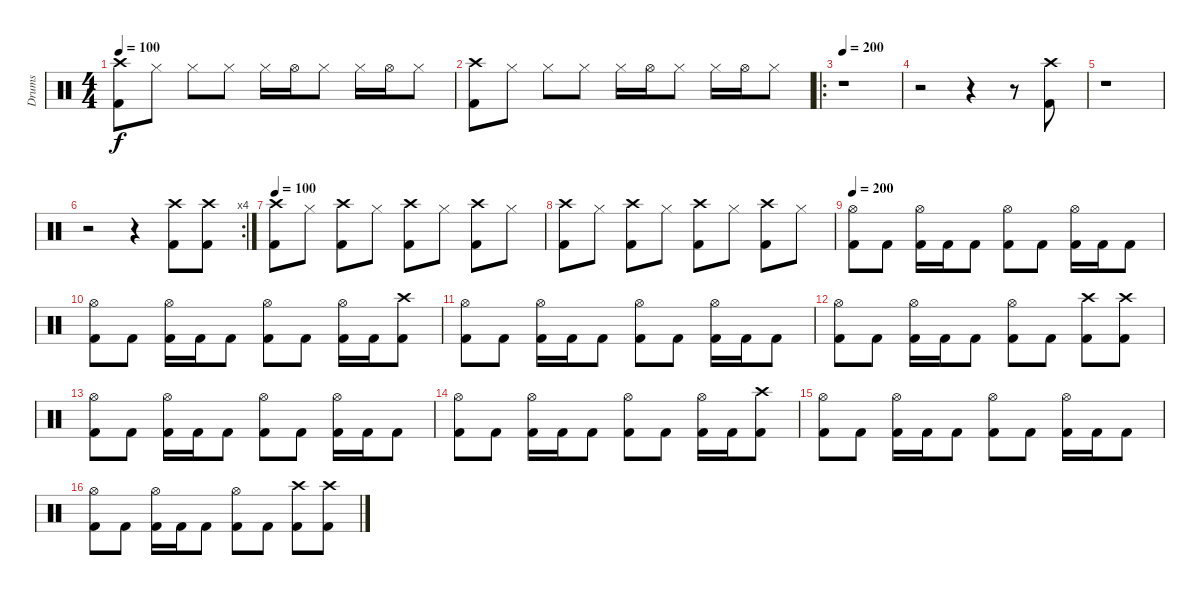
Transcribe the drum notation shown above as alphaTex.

\track ("Drums" "Drums") {instrument percussion}
\staff {score}
\articulation defaults
\ts (4 4)
\tempo 100
\clef neutral
\ks c
("Crash high (hit)" "Kick (hit) 2").8{dy f} "Hi-Hat (closed)".8 "Hi-Hat (closed)".8 "Hi-Hat (closed)".8 "Hi-Hat (closed)".16 "Hi-Hat (open)".16 "Hi-Hat (closed)".8 "Hi-Hat (closed)".16 "Hi-Hat (open)".16 "Hi-Hat (closed)".8 |
("Crash high (hit)" "Kick (hit) 2").8 "Hi-Hat (closed)".8 "Hi-Hat (closed)".8 "Hi-Hat (closed)".8 "Hi-Hat (closed)".16 "Hi-Hat (open)".16 "Hi-Hat (closed)".8 "Hi-Hat (closed)".16 "Hi-Hat (open)".16 "Hi-Hat (closed)".8 |
\ro
\tempo 200
r.1 |
r.2 r.4 r.8 ("Crash high (hit)" "Kick (hit) 2").8 |
r.1 |
\rc 4
r.2 r.4 ("Crash high (hit)" "Kick (hit) 2").8 ("Crash high (hit)" "Kick (hit) 2").8 |
\tempo 100
("Crash high (hit)" "Kick (hit) 2").8 "Hi-Hat (closed)".8 ("Crash high (hit)" "Kick (hit) 2").8 "Hi-Hat (closed)".8 ("Crash high (hit)" "Kick (hit) 2").8 "Hi-Hat (closed)".8 ("Crash high (hit)" "Kick (hit) 2").8 "Hi-Hat (closed)".8 |
("Crash high (hit)" "Kick (hit) 2").8 "Hi-Hat (closed)".8 ("Crash high (hit)" "Kick (hit) 2").8 "Hi-Hat (closed)".8 ("Crash high (hit)" "Kick (hit) 2").8 "Hi-Hat (closed)".8 ("Crash high (hit)" "Kick (hit) 2").8 "Hi-Hat (closed)".8 |
\tempo 200
("Hi-Hat (open)" "Kick (hit) 2").8 "Kick (hit) 2".8 ("Hi-Hat (open)" "Kick (hit) 2").16 "Kick (hit) 2".16 "Kick (hit) 2".8 ("Hi-Hat (open)" "Kick (hit) 2").8 "Kick (hit) 2".8 ("Hi-Hat (open)" "Kick (hit) 2").16 "Kick (hit) 2".16 "Kick (hit) 2".8 |
("Hi-Hat (open)" "Kick (hit) 2").8 "Kick (hit) 2".8 ("Hi-Hat (open)" "Kick (hit) 2").16 "Kick (hit) 2".16 "Kick (hit) 2".8 ("Hi-Hat (open)" "Kick (hit) 2").8 "Kick (hit) 2".8 ("Hi-Hat (open)" "Kick (hit) 2").16 "Kick (hit) 2".16 ("Crash high (hit)" "Kick (hit) 2").8 |
("Hi-Hat (open)" "Kick (hit) 2").8 "Kick (hit) 2".8 ("Hi-Hat (open)" "Kick (hit) 2").16 "Kick (hit) 2".16 "Kick (hit) 2".8 ("Hi-Hat (open)" "Kick (hit) 2").8 "Kick (hit) 2".8 ("Hi-Hat (open)" "Kick (hit) 2").16 "Kick (hit) 2".16 "Kick (hit) 2".8 |
("Hi-Hat (open)" "Kick (hit) 2").8 "Kick (hit) 2".8 ("Hi-Hat (open)" "Kick (hit) 2").16 "Kick (hit) 2".16 "Kick (hit) 2".8 ("Hi-Hat (open)" "Kick (hit) 2").8 "Kick (hit) 2".8 ("Crash high (hit)" "Kick (hit) 2").8 ("Crash high (hit)" "Kick (hit) 2").8 |
("Hi-Hat (open)" "Kick (hit) 2").8 "Kick (hit) 2".8 ("Hi-Hat (open)" "Kick (hit) 2").16 "Kick (hit) 2".16 "Kick (hit) 2".8 ("Hi-Hat (open)" "Kick (hit) 2").8 "Kick (hit) 2".8 ("Hi-Hat (open)" "Kick (hit) 2").16 "Kick (hit) 2".16 "Kick (hit) 2".8 |
("Hi-Hat (open)" "Kick (hit) 2").8 "Kick (hit) 2".8 ("Hi-Hat (open)" "Kick (hit) 2").16 "Kick (hit) 2".16 "Kick (hit) 2".8 ("Hi-Hat (open)" "Kick (hit) 2").8 "Kick (hit) 2".8 ("Hi-Hat (open)" "Kick (hit) 2").16 "Kick (hit) 2".16 ("Crash high (hit)" "Kick (hit) 2").8 |
("Hi-Hat (open)" "Kick (hit) 2").8 "Kick (hit) 2".8 ("Hi-Hat (open)" "Kick (hit) 2").16 "Kick (hit) 2".16 "Kick (hit) 2".8 ("Hi-Hat (open)" "Kick (hit) 2").8 "Kick (hit) 2".8 ("Hi-Hat (open)" "Kick (hit) 2").16 "Kick (hit) 2".16 "Kick (hit) 2".8 |
("Hi-Hat (open)" "Kick (hit) 2").8 "Kick (hit) 2".8 ("Hi-Hat (open)" "Kick (hit) 2").16 "Kick (hit) 2".16 "Kick (hit) 2".8 ("Hi-Hat (open)" "Kick (hit) 2").8 "Kick (hit) 2".8 ("Crash high (hit)" "Kick (hit) 2").8 ("Crash high (hit)" "Kick (hit) 2").8
